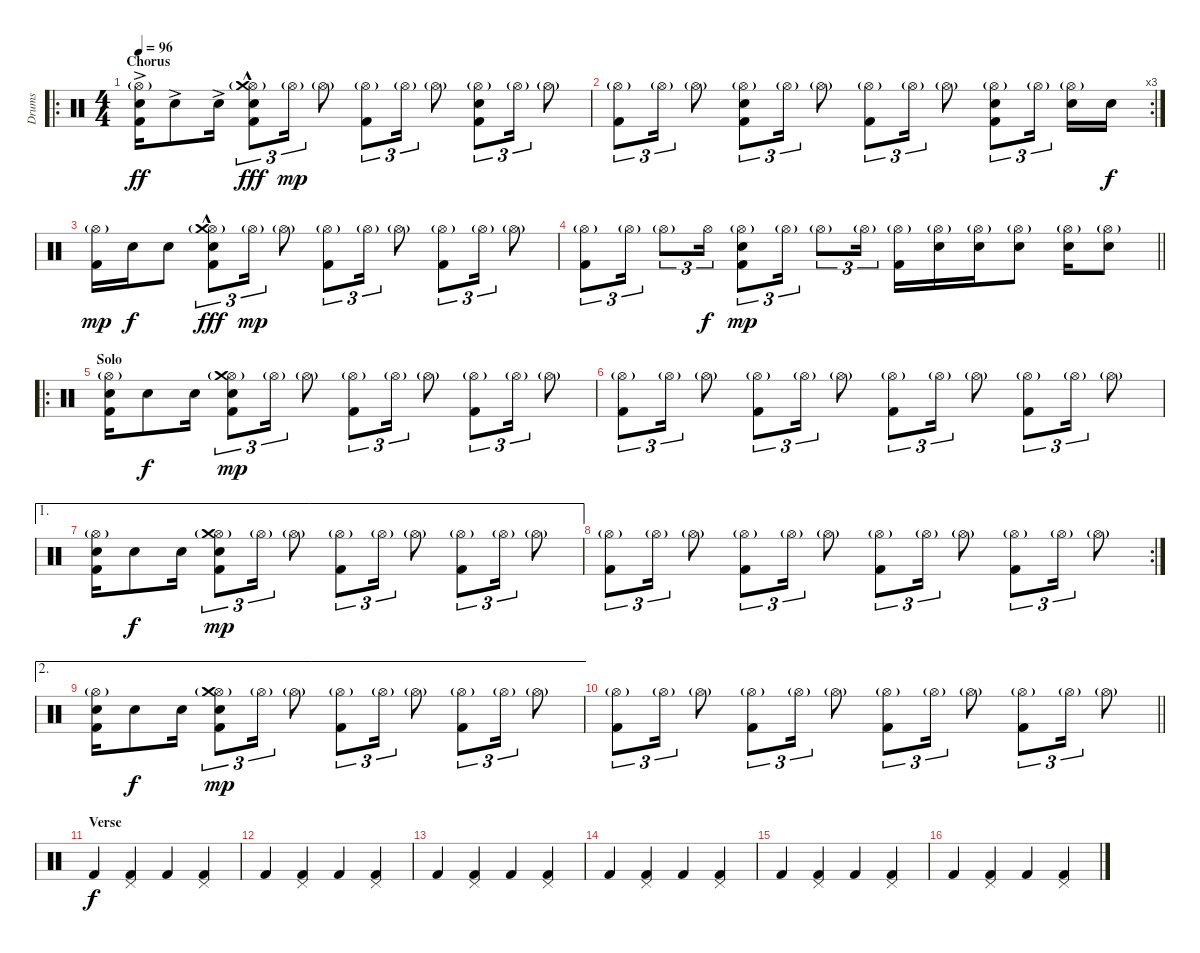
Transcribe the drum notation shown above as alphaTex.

\track ("Drums" "Drums") {instrument percussion}
\staff {score}
\articulation defaults
\ro
\ts (4 4)
\section ("" "Chorus")
\tempo 96
\clef neutral
\ks c
("Hi-Hat (open)"{g} "Electric Snare (hit)"{ac} "Kick (hit) 2").16{dy ff} "Electric Snare (hit)"{ac}.8 "Electric Snare (hit)"{ac}.16 ("Hi-Hat (open)"{g} "Crash medium (hit)"{hac} "Electric Snare (hit)"{hac} "Kick (hit) 2").8{tu (3 2) dy fff} "Hi-Hat (open)"{g}.16{tu (3 2) dy mp} "Hi-Hat (open)"{g}.8 ("Hi-Hat (open)"{g} "Kick (hit) 2").8{tu (3 2)} "Hi-Hat (open)"{g}.16{tu (3 2)} "Hi-Hat (open)"{g}.8 ("Hi-Hat (open)"{g} "Electric Snare (hit)" "Kick (hit) 2").8{tu (3 2)} "Hi-Hat (open)"{g}.16{tu (3 2)} "Hi-Hat (open)"{g}.8 |
\rc 3
("Hi-Hat (open)"{g} "Kick (hit) 2").8{tu (3 2)} "Hi-Hat (open)"{g}.16{tu (3 2)} "Hi-Hat (open)"{g}.8 ("Hi-Hat (open)"{g} "Electric Snare (hit)" "Kick (hit) 2").8{tu (3 2)} "Hi-Hat (open)"{g}.16{tu (3 2)} "Hi-Hat (open)"{g}.8 ("Hi-Hat (open)"{g} "Kick (hit) 2").8{tu (3 2)} "Hi-Hat (open)"{g}.16{tu (3 2)} "Hi-Hat (open)"{g}.8 ("Hi-Hat (open)"{g} "Electric Snare (hit)" "Kick (hit) 2").8{tu (3 2)} "Hi-Hat (open)"{g}.16{tu (3 2) beam splitsecondary} ("Hi-Hat (open)"{g} "Electric Snare (hit)").16 "Electric Snare (hit)".16{dy f} |
("Hi-Hat (open)"{g} "Kick (hit) 2").16{dy mp} "Electric Snare (hit)".16{dy f} "Electric Snare (hit)".8 ("Hi-Hat (open)"{g} "Crash medium (hit)"{hac} "Electric Snare (hit)"{hac} "Kick (hit) 2").8{tu (3 2) dy fff} "Hi-Hat (open)"{g}.16{tu (3 2) dy mp} "Hi-Hat (open)"{g}.8 ("Hi-Hat (open)"{g} "Kick (hit) 2").8{tu (3 2)} "Hi-Hat (open)"{g}.16{tu (3 2)} "Hi-Hat (open)"{g}.8 ("Hi-Hat (open)"{g} "Kick (hit) 2").8{tu (3 2)} "Hi-Hat (open)"{g}.16{tu (3 2)} "Hi-Hat (open)"{g}.8 |
\barLineRight lightlight
("Hi-Hat (open)"{g} "Kick (hit) 2").8{tu (3 2)} "Hi-Hat (open)"{g}.16{tu (3 2)} "Hi-Hat (open)"{g}.8{tu (3 2)} "Hi-Hat (open)".16{tu (3 2) dy f} ("Hi-Hat (open)"{g} "Electric Snare (hit)" "Kick (hit) 2").8{tu (3 2) dy mp} "Hi-Hat (open)"{g}.16{tu (3 2)} "Hi-Hat (open)"{g}.8{tu (3 2)} "Hi-Hat (open)"{g}.16{tu (3 2)} ("Hi-Hat (open)"{g} "Kick (hit) 2").16 ("Hi-Hat (open)"{g} "Electric Snare (hit)").16 ("Hi-Hat (open)"{g} "Electric Snare (hit)").16 ("Hi-Hat (open)"{g} "Electric Snare (hit)").8 ("Hi-Hat (open)"{g} "Electric Snare (hit)").16 ("Hi-Hat (open)"{g} "Electric Snare (hit)").8 |
\ro
\section ("" "Solo")
("Hi-Hat (open)"{g} "Electric Snare (hit)" "Kick (hit) 2").16 "Electric Snare (hit)".8{dy f} "Electric Snare (hit)".16 ("Hi-Hat (open)"{g} "Crash medium (hit)" "Electric Snare (hit)" "Kick (hit) 2").8{tu (3 2) dy mp} "Hi-Hat (open)"{g}.16{tu (3 2)} "Hi-Hat (open)"{g}.8 ("Hi-Hat (open)"{g} "Kick (hit) 2").8{tu (3 2)} "Hi-Hat (open)"{g}.16{tu (3 2)} "Hi-Hat (open)"{g}.8 ("Hi-Hat (open)"{g} "Kick (hit) 2").8{tu (3 2)} "Hi-Hat (open)"{g}.16{tu (3 2)} "Hi-Hat (open)"{g}.8 |
("Hi-Hat (open)"{g} "Kick (hit) 2").8{tu (3 2)} "Hi-Hat (open)"{g}.16{tu (3 2)} "Hi-Hat (open)"{g}.8 ("Hi-Hat (open)"{g} "Kick (hit) 2").8{tu (3 2)} "Hi-Hat (open)"{g}.16{tu (3 2)} "Hi-Hat (open)"{g}.8 ("Hi-Hat (open)"{g} "Kick (hit) 2").8{tu (3 2)} "Hi-Hat (open)"{g}.16{tu (3 2)} "Hi-Hat (open)"{g}.8 ("Hi-Hat (open)"{g} "Kick (hit) 2").8{tu (3 2)} "Hi-Hat (open)"{g}.16{tu (3 2)} "Hi-Hat (open)"{g}.8 |
\ae 1
("Hi-Hat (open)"{g} "Electric Snare (hit)" "Kick (hit) 2").16 "Electric Snare (hit)".8{dy f} "Electric Snare (hit)".16 ("Hi-Hat (open)"{g} "Crash medium (hit)" "Electric Snare (hit)" "Kick (hit) 2").8{tu (3 2) dy mp} "Hi-Hat (open)"{g}.16{tu (3 2)} "Hi-Hat (open)"{g}.8 ("Hi-Hat (open)"{g} "Kick (hit) 2").8{tu (3 2)} "Hi-Hat (open)"{g}.16{tu (3 2)} "Hi-Hat (open)"{g}.8 ("Hi-Hat (open)"{g} "Kick (hit) 2").8{tu (3 2)} "Hi-Hat (open)"{g}.16{tu (3 2)} "Hi-Hat (open)"{g}.8 |
\rc 2
("Hi-Hat (open)"{g} "Kick (hit) 2").8{tu (3 2)} "Hi-Hat (open)"{g}.16{tu (3 2)} "Hi-Hat (open)"{g}.8 ("Hi-Hat (open)"{g} "Kick (hit) 2").8{tu (3 2)} "Hi-Hat (open)"{g}.16{tu (3 2)} "Hi-Hat (open)"{g}.8 ("Hi-Hat (open)"{g} "Kick (hit) 2").8{tu (3 2)} "Hi-Hat (open)"{g}.16{tu (3 2)} "Hi-Hat (open)"{g}.8 ("Hi-Hat (open)"{g} "Kick (hit) 2").8{tu (3 2)} "Hi-Hat (open)"{g}.16{tu (3 2)} "Hi-Hat (open)"{g}.8 |
\ae 2
("Hi-Hat (open)"{g} "Electric Snare (hit)" "Kick (hit) 2").16 "Electric Snare (hit)".8{dy f} "Electric Snare (hit)".16 ("Hi-Hat (open)"{g} "Crash medium (hit)" "Electric Snare (hit)" "Kick (hit) 2").8{tu (3 2) dy mp} "Hi-Hat (open)"{g}.16{tu (3 2)} "Hi-Hat (open)"{g}.8 ("Hi-Hat (open)"{g} "Kick (hit) 2").8{tu (3 2)} "Hi-Hat (open)"{g}.16{tu (3 2)} "Hi-Hat (open)"{g}.8 ("Hi-Hat (open)"{g} "Kick (hit) 2").8{tu (3 2)} "Hi-Hat (open)"{g}.16{tu (3 2)} "Hi-Hat (open)"{g}.8 |
\barLineRight lightlight
("Hi-Hat (open)"{g} "Kick (hit) 2").8{tu (3 2)} "Hi-Hat (open)"{g}.16{tu (3 2)} "Hi-Hat (open)"{g}.8 ("Hi-Hat (open)"{g} "Kick (hit) 2").8{tu (3 2)} "Hi-Hat (open)"{g}.16{tu (3 2)} "Hi-Hat (open)"{g}.8 ("Hi-Hat (open)"{g} "Kick (hit) 2").8{tu (3 2)} "Hi-Hat (open)"{g}.16{tu (3 2)} "Hi-Hat (open)"{g}.8 ("Hi-Hat (open)"{g} "Kick (hit) 2").8{tu (3 2)} "Hi-Hat (open)"{g}.16{tu (3 2)} "Hi-Hat (open)"{g}.8 |
\section ("" "Verse")
"Kick (hit) 2".4{dy f} ("Pedal Hi-Hat (hit)" "Kick (hit) 2").4 "Kick (hit) 2".4 ("Pedal Hi-Hat (hit)" "Kick (hit) 2").4 |
"Kick (hit) 2".4 ("Pedal Hi-Hat (hit)" "Kick (hit) 2").4 "Kick (hit) 2".4 ("Pedal Hi-Hat (hit)" "Kick (hit) 2").4 |
"Kick (hit) 2".4 ("Pedal Hi-Hat (hit)" "Kick (hit) 2").4 "Kick (hit) 2".4 ("Pedal Hi-Hat (hit)" "Kick (hit) 2").4 |
"Kick (hit) 2".4 ("Pedal Hi-Hat (hit)" "Kick (hit) 2").4 "Kick (hit) 2".4 ("Pedal Hi-Hat (hit)" "Kick (hit) 2").4 |
"Kick (hit) 2".4 ("Pedal Hi-Hat (hit)" "Kick (hit) 2").4 "Kick (hit) 2".4 ("Pedal Hi-Hat (hit)" "Kick (hit) 2").4 |
"Kick (hit) 2".4 ("Pedal Hi-Hat (hit)" "Kick (hit) 2").4 "Kick (hit) 2".4 ("Pedal Hi-Hat (hit)" "Kick (hit) 2").4
